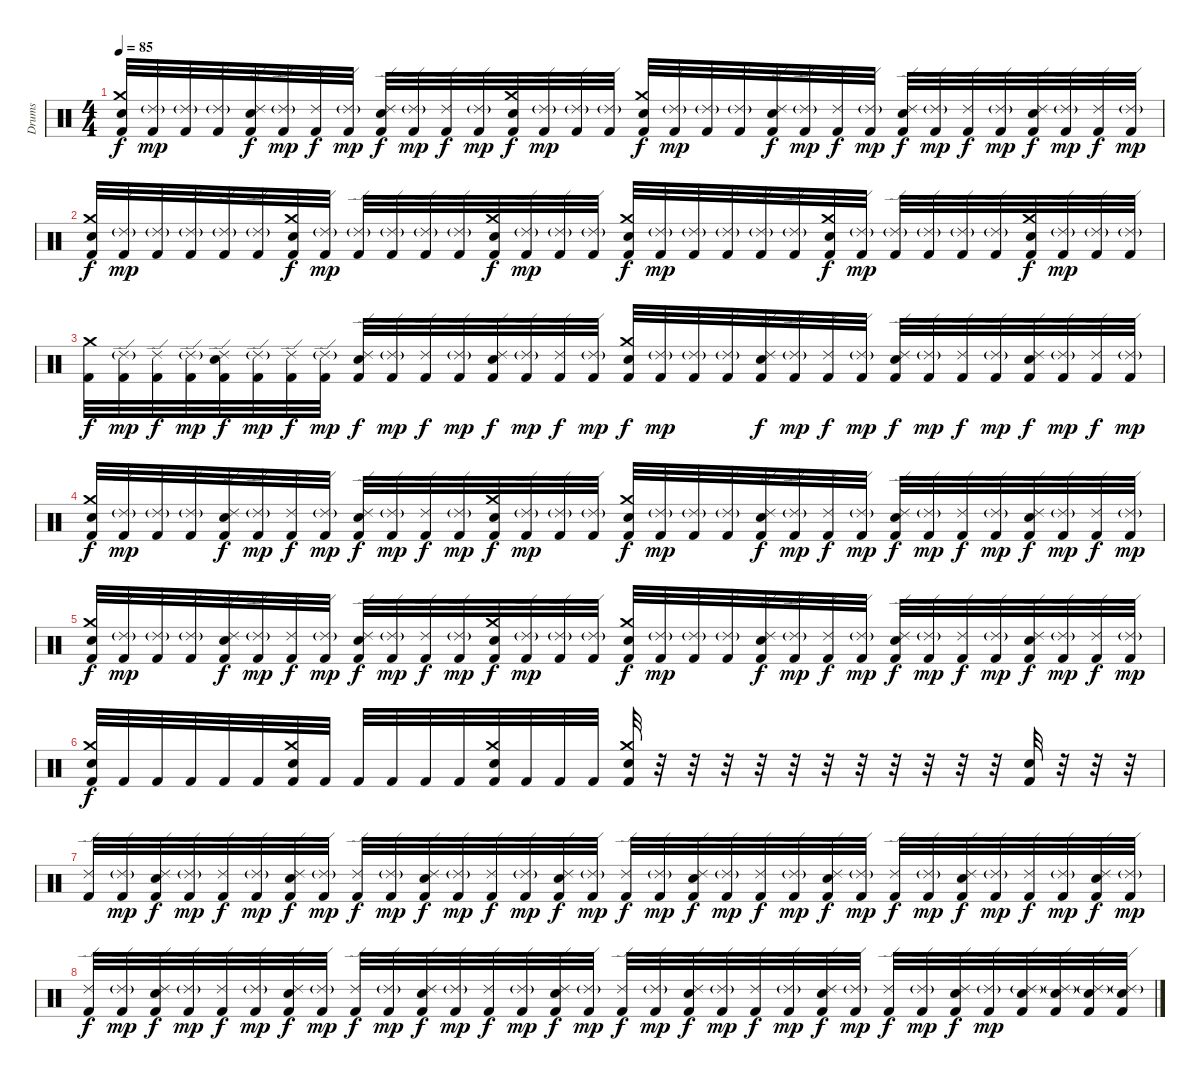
\track ("Drums" "Drums") {instrument percussion}
\staff {score}
\articulation defaults
\ts (4 4)
\tempo 85
\clef neutral
\ks c
("Snare (hit) 2" "Crash medium (hit)" "Kick (hit) 2").32{dy f} ("Ride (edge) 2"{g} "Kick (hit) 2").32{dy mp} ("Ride (edge) 2"{g} "Kick (hit) 2").32 ("Ride (edge) 2"{g} "Kick (hit) 2").32 ("Snare (hit) 2" "Ride (edge) 2" "Kick (hit) 2").32{dy f} ("Ride (edge) 2"{g} "Kick (hit) 2").32{dy mp} ("Ride (edge) 2" "Kick (hit) 2").32{dy f} ("Ride (edge) 2"{g} "Kick (hit) 2").32{dy mp} ("Snare (hit) 2" "Ride (edge) 2" "Kick (hit) 2").32{dy f} ("Ride (edge) 2"{g} "Kick (hit) 2").32{dy mp} ("Ride (edge) 2" "Kick (hit) 2").32{dy f} ("Ride (edge) 2"{g} "Kick (hit) 2").32{dy mp} ("Snare (hit) 2" "Crash medium (hit)" "Kick (hit) 2").32{dy f} ("Ride (edge) 2"{g} "Kick (hit) 2").32{dy mp} ("Ride (edge) 2"{g} "Kick (hit) 2").32 ("Ride (edge) 2"{g} "Kick (hit) 2").32 ("Snare (hit) 2" "Crash medium (hit)" "Kick (hit) 2").32{dy f} ("Ride (edge) 2"{g} "Kick (hit) 2").32{dy mp} ("Ride (edge) 2"{g} "Kick (hit) 2").32 ("Ride (edge) 2"{g} "Kick (hit) 2").32 ("Snare (hit) 2" "Ride (edge) 2" "Kick (hit) 2").32{dy f} ("Ride (edge) 2"{g} "Kick (hit) 2").32{dy mp} ("Ride (edge) 2" "Kick (hit) 2").32{dy f} ("Ride (edge) 2"{g} "Kick (hit) 2").32{dy mp} ("Snare (hit) 2" "Ride (edge) 2" "Kick (hit) 2").32{dy f} ("Ride (edge) 2"{g} "Kick (hit) 2").32{dy mp} ("Ride (edge) 2" "Kick (hit) 2").32{dy f} ("Ride (edge) 2"{g} "Kick (hit) 2").32{dy mp} ("Snare (hit) 2" "Ride (edge) 2" "Kick (hit) 2").32{dy f} ("Ride (edge) 2"{g} "Kick (hit) 2").32{dy mp} ("Ride (edge) 2" "Kick (hit) 2").32{dy f} ("Ride (edge) 2"{g} "Kick (hit) 2").32{dy mp} |
("Snare (hit) 2" "Crash medium (hit)" "Kick (hit) 2").32{dy f} ("Ride (edge) 2"{g} "Kick (hit) 2").32{dy mp} ("Ride (edge) 2"{g} "Kick (hit) 2").32 ("Ride (edge) 2"{g} "Kick (hit) 2").32 ("Ride (edge) 2"{g} "Kick (hit) 2").32 ("Ride (edge) 2"{g} "Kick (hit) 2").32 ("Snare (hit) 2" "Crash medium (hit)" "Kick (hit) 2").32{dy f} ("Ride (edge) 2"{g} "Kick (hit) 2").32{dy mp} ("Ride (edge) 2"{g} "Kick (hit) 2").32 ("Ride (edge) 2"{g} "Kick (hit) 2").32 ("Ride (edge) 2"{g} "Kick (hit) 2").32 ("Ride (edge) 2"{g} "Kick (hit) 2").32 ("Snare (hit) 2" "Crash medium (hit)" "Kick (hit) 2").32{dy f} ("Ride (edge) 2"{g} "Kick (hit) 2").32{dy mp} ("Ride (edge) 2"{g} "Kick (hit) 2").32 ("Ride (edge) 2"{g} "Kick (hit) 2").32 ("Snare (hit) 2" "Crash medium (hit)" "Kick (hit) 2").32{dy f} ("Ride (edge) 2"{g} "Kick (hit) 2").32{dy mp} ("Ride (edge) 2"{g} "Kick (hit) 2").32 ("Ride (edge) 2"{g} "Kick (hit) 2").32 ("Ride (edge) 2"{g} "Kick (hit) 2").32 ("Ride (edge) 2"{g} "Kick (hit) 2").32 ("Snare (hit) 2" "Crash medium (hit)" "Kick (hit) 2").32{dy f} ("Ride (edge) 2"{g} "Kick (hit) 2").32{dy mp} ("Ride (edge) 2"{g} "Kick (hit) 2").32 ("Ride (edge) 2"{g} "Kick (hit) 2").32 ("Ride (edge) 2"{g} "Kick (hit) 2").32 ("Ride (edge) 2"{g} "Kick (hit) 2").32 ("Snare (hit) 2" "Crash medium (hit)" "Kick (hit) 2").32{dy f} ("Ride (edge) 2"{g} "Kick (hit) 2").32{dy mp} ("Ride (edge) 2"{g} "Kick (hit) 2").32 ("Ride (edge) 2"{g} "Kick (hit) 2").32 |
("Crash medium (hit)" "Kick (hit) 2").32{dy f} ("Ride (edge) 2"{g} "Kick (hit) 2").32{dy mp} ("Ride (edge) 2" "Kick (hit) 2").32{dy f} ("Ride (edge) 2"{g} "Kick (hit) 2").32{dy mp} ("Snare (hit) 2" "Ride (edge) 2" "Kick (hit) 2").32{dy f} ("Ride (edge) 2"{g} "Kick (hit) 2").32{dy mp} ("Ride (edge) 2" "Kick (hit) 2").32{dy f} ("Ride (edge) 2"{g} "Kick (hit) 2").32{dy mp} ("Snare (hit) 2" "Ride (edge) 2" "Kick (hit) 2").32{dy f} ("Ride (edge) 2"{g} "Kick (hit) 2").32{dy mp} ("Ride (edge) 2" "Kick (hit) 2").32{dy f} ("Ride (edge) 2"{g} "Kick (hit) 2").32{dy mp} ("Snare (hit) 2" "Ride (edge) 2" "Kick (hit) 2").32{dy f} ("Ride (edge) 2"{g} "Kick (hit) 2").32{dy mp} ("Ride (edge) 2" "Kick (hit) 2").32{dy f} ("Ride (edge) 2"{g} "Kick (hit) 2").32{dy mp} ("Snare (hit) 2" "Crash medium (hit)" "Kick (hit) 2").32{dy f} ("Ride (edge) 2"{g} "Kick (hit) 2").32{dy mp} ("Ride (edge) 2"{g} "Kick (hit) 2").32 ("Ride (edge) 2"{g} "Kick (hit) 2").32 ("Snare (hit) 2" "Ride (edge) 2" "Kick (hit) 2").32{dy f} ("Ride (edge) 2"{g} "Kick (hit) 2").32{dy mp} ("Ride (edge) 2" "Kick (hit) 2").32{dy f} ("Ride (edge) 2"{g} "Kick (hit) 2").32{dy mp} ("Snare (hit) 2" "Ride (edge) 2" "Kick (hit) 2").32{dy f} ("Ride (edge) 2"{g} "Kick (hit) 2").32{dy mp} ("Ride (edge) 2" "Kick (hit) 2").32{dy f} ("Ride (edge) 2"{g} "Kick (hit) 2").32{dy mp} ("Snare (hit) 2" "Ride (edge) 2" "Kick (hit) 2").32{dy f} ("Ride (edge) 2"{g} "Kick (hit) 2").32{dy mp} ("Ride (edge) 2" "Kick (hit) 2").32{dy f} ("Ride (edge) 2"{g} "Kick (hit) 2").32{dy mp} |
("Snare (hit) 2" "Crash medium (hit)" "Kick (hit) 2").32{dy f} ("Ride (edge) 2"{g} "Kick (hit) 2").32{dy mp} ("Ride (edge) 2"{g} "Kick (hit) 2").32 ("Ride (edge) 2"{g} "Kick (hit) 2").32 ("Snare (hit) 2" "Ride (edge) 2" "Kick (hit) 2").32{dy f} ("Ride (edge) 2"{g} "Kick (hit) 2").32{dy mp} ("Ride (edge) 2" "Kick (hit) 2").32{dy f} ("Ride (edge) 2"{g} "Kick (hit) 2").32{dy mp} ("Snare (hit) 2" "Ride (edge) 2" "Kick (hit) 2").32{dy f} ("Ride (edge) 2"{g} "Kick (hit) 2").32{dy mp} ("Ride (edge) 2" "Kick (hit) 2").32{dy f} ("Ride (edge) 2"{g} "Kick (hit) 2").32{dy mp} ("Snare (hit) 2" "Crash medium (hit)" "Kick (hit) 2").32{dy f} ("Ride (edge) 2"{g} "Kick (hit) 2").32{dy mp} ("Ride (edge) 2"{g} "Kick (hit) 2").32 ("Ride (edge) 2"{g} "Kick (hit) 2").32 ("Snare (hit) 2" "Crash medium (hit)" "Kick (hit) 2").32{dy f} ("Ride (edge) 2"{g} "Kick (hit) 2").32{dy mp} ("Ride (edge) 2"{g} "Kick (hit) 2").32 ("Ride (edge) 2"{g} "Kick (hit) 2").32 ("Snare (hit) 2" "Ride (edge) 2" "Kick (hit) 2").32{dy f} ("Ride (edge) 2"{g} "Kick (hit) 2").32{dy mp} ("Ride (edge) 2" "Kick (hit) 2").32{dy f} ("Ride (edge) 2"{g} "Kick (hit) 2").32{dy mp} ("Snare (hit) 2" "Ride (edge) 2" "Kick (hit) 2").32{dy f} ("Ride (edge) 2"{g} "Kick (hit) 2").32{dy mp} ("Ride (edge) 2" "Kick (hit) 2").32{dy f} ("Ride (edge) 2"{g} "Kick (hit) 2").32{dy mp} ("Snare (hit) 2" "Ride (edge) 2" "Kick (hit) 2").32{dy f} ("Ride (edge) 2"{g} "Kick (hit) 2").32{dy mp} ("Ride (edge) 2" "Kick (hit) 2").32{dy f} ("Ride (edge) 2"{g} "Kick (hit) 2").32{dy mp} |
("Snare (hit) 2" "Crash medium (hit)" "Kick (hit) 2").32{dy f} ("Ride (edge) 2"{g} "Kick (hit) 2").32{dy mp} ("Ride (edge) 2"{g} "Kick (hit) 2").32 ("Ride (edge) 2"{g} "Kick (hit) 2").32 ("Snare (hit) 2" "Ride (edge) 2" "Kick (hit) 2").32{dy f} ("Ride (edge) 2"{g} "Kick (hit) 2").32{dy mp} ("Ride (edge) 2" "Kick (hit) 2").32{dy f} ("Ride (edge) 2"{g} "Kick (hit) 2").32{dy mp} ("Snare (hit) 2" "Ride (edge) 2" "Kick (hit) 2").32{dy f} ("Ride (edge) 2"{g} "Kick (hit) 2").32{dy mp} ("Ride (edge) 2" "Kick (hit) 2").32{dy f} ("Ride (edge) 2"{g} "Kick (hit) 2").32{dy mp} ("Snare (hit) 2" "Crash medium (hit)" "Kick (hit) 2").32{dy f} ("Ride (edge) 2"{g} "Kick (hit) 2").32{dy mp} ("Ride (edge) 2"{g} "Kick (hit) 2").32 ("Ride (edge) 2"{g} "Kick (hit) 2").32 ("Snare (hit) 2" "Crash medium (hit)" "Kick (hit) 2").32{dy f} ("Ride (edge) 2"{g} "Kick (hit) 2").32{dy mp} ("Ride (edge) 2"{g} "Kick (hit) 2").32 ("Ride (edge) 2"{g} "Kick (hit) 2").32 ("Snare (hit) 2" "Ride (edge) 2" "Kick (hit) 2").32{dy f} ("Ride (edge) 2"{g} "Kick (hit) 2").32{dy mp} ("Ride (edge) 2" "Kick (hit) 2").32{dy f} ("Ride (edge) 2"{g} "Kick (hit) 2").32{dy mp} ("Snare (hit) 2" "Ride (edge) 2" "Kick (hit) 2").32{dy f} ("Ride (edge) 2"{g} "Kick (hit) 2").32{dy mp} ("Ride (edge) 2" "Kick (hit) 2").32{dy f} ("Ride (edge) 2"{g} "Kick (hit) 2").32{dy mp} ("Snare (hit) 2" "Ride (edge) 2" "Kick (hit) 2").32{dy f} ("Ride (edge) 2"{g} "Kick (hit) 2").32{dy mp} ("Ride (edge) 2" "Kick (hit) 2").32{dy f} ("Ride (edge) 2"{g} "Kick (hit) 2").32{dy mp} |
("Snare (hit) 2" "Crash medium (hit)" "Kick (hit) 2").32{dy f} "Kick (hit) 2".32 "Kick (hit) 2".32 "Kick (hit) 2".32 "Kick (hit) 2".32 "Kick (hit) 2".32 ("Snare (hit) 2" "Crash medium (hit)" "Kick (hit) 2").32 "Kick (hit) 2".32 "Kick (hit) 2".32 "Kick (hit) 2".32 "Kick (hit) 2".32 "Kick (hit) 2".32 ("Snare (hit) 2" "Crash medium (hit)" "Kick (hit) 2").32 "Kick (hit) 2".32 "Kick (hit) 2".32 "Kick (hit) 2".32 ("Snare (hit) 2" "Crash medium (hit)" "Kick (hit) 2").32 r.32 r.32 r.32 r.32 r.32 r.32 r.32 r.32 r.32 r.32 r.32 ("Snare (hit) 2" "Kick (hit) 2").32 r.32 r.32 r.32 |
("Ride (edge) 2" "Kick (hit) 2").32 ("Ride (edge) 2"{g} "Kick (hit) 2").32{dy mp} ("Snare (hit) 2" "Ride (edge) 2" "Kick (hit) 2").32{dy f} ("Ride (edge) 2"{g} "Kick (hit) 2").32{dy mp} ("Ride (edge) 2" "Kick (hit) 2").32{dy f} ("Ride (edge) 2"{g} "Kick (hit) 2").32{dy mp} ("Snare (hit) 2" "Ride (edge) 2" "Kick (hit) 2").32{dy f} ("Ride (edge) 2"{g} "Kick (hit) 2").32{dy mp} ("Ride (edge) 2" "Kick (hit) 2").32{dy f} ("Ride (edge) 2"{g} "Kick (hit) 2").32{dy mp} ("Snare (hit) 2" "Ride (edge) 2" "Kick (hit) 2").32{dy f} ("Ride (edge) 2"{g} "Kick (hit) 2").32{dy mp} ("Ride (edge) 2" "Kick (hit) 2").32{dy f} ("Ride (edge) 2"{g} "Kick (hit) 2").32{dy mp} ("Snare (hit) 2" "Ride (edge) 2" "Kick (hit) 2").32{dy f} ("Ride (edge) 2"{g} "Kick (hit) 2").32{dy mp} ("Ride (edge) 2" "Kick (hit) 2").32{dy f} ("Ride (edge) 2"{g} "Kick (hit) 2").32{dy mp} ("Snare (hit) 2" "Ride (edge) 2" "Kick (hit) 2").32{dy f} ("Ride (edge) 2"{g} "Kick (hit) 2").32{dy mp} ("Ride (edge) 2" "Kick (hit) 2").32{dy f} ("Ride (edge) 2"{g} "Kick (hit) 2").32{dy mp} ("Snare (hit) 2" "Ride (edge) 2" "Kick (hit) 2").32{dy f} ("Ride (edge) 2"{g} "Kick (hit) 2").32{dy mp} ("Ride (edge) 2" "Kick (hit) 2").32{dy f} ("Ride (edge) 2"{g} "Kick (hit) 2").32{dy mp} ("Snare (hit) 2" "Ride (edge) 2" "Kick (hit) 2").32{dy f} ("Ride (edge) 2"{g} "Kick (hit) 2").32{dy mp} ("Ride (edge) 2" "Kick (hit) 2").32{dy f} ("Ride (edge) 2"{g} "Kick (hit) 2").32{dy mp} ("Snare (hit) 2" "Ride (edge) 2" "Kick (hit) 2").32{dy f} ("Ride (edge) 2"{g} "Kick (hit) 2").32{dy mp} |
("Ride (edge) 2" "Kick (hit) 2").32{dy f} ("Ride (edge) 2"{g} "Kick (hit) 2").32{dy mp} ("Snare (hit) 2" "Ride (edge) 2" "Kick (hit) 2").32{dy f} ("Ride (edge) 2"{g} "Kick (hit) 2").32{dy mp} ("Ride (edge) 2" "Kick (hit) 2").32{dy f} ("Ride (edge) 2"{g} "Kick (hit) 2").32{dy mp} ("Snare (hit) 2" "Ride (edge) 2" "Kick (hit) 2").32{dy f} ("Ride (edge) 2"{g} "Kick (hit) 2").32{dy mp} ("Ride (edge) 2" "Kick (hit) 2").32{dy f} ("Ride (edge) 2"{g} "Kick (hit) 2").32{dy mp} ("Snare (hit) 2" "Ride (edge) 2" "Kick (hit) 2").32{dy f} ("Ride (edge) 2"{g} "Kick (hit) 2").32{dy mp} ("Ride (edge) 2" "Kick (hit) 2").32{dy f} ("Ride (edge) 2"{g} "Kick (hit) 2").32{dy mp} ("Snare (hit) 2" "Ride (edge) 2" "Kick (hit) 2").32{dy f} ("Ride (edge) 2"{g} "Kick (hit) 2").32{dy mp} ("Ride (edge) 2" "Kick (hit) 2").32{dy f} ("Ride (edge) 2"{g} "Kick (hit) 2").32{dy mp} ("Snare (hit) 2" "Ride (edge) 2" "Kick (hit) 2").32{dy f} ("Ride (edge) 2"{g} "Kick (hit) 2").32{dy mp} ("Ride (edge) 2" "Kick (hit) 2").32{dy f} ("Ride (edge) 2"{g} "Kick (hit) 2").32{dy mp} ("Snare (hit) 2" "Ride (edge) 2" "Kick (hit) 2").32{dy f} ("Ride (edge) 2"{g} "Kick (hit) 2").32{dy mp} ("Ride (edge) 2" "Kick (hit) 2").32{dy f} ("Ride (edge) 2"{g} "Kick (hit) 2").32{dy mp} ("Snare (hit) 2" "Ride (edge) 2" "Kick (hit) 2").32{dy f} ("Ride (edge) 2"{g} "Kick (hit) 2").32{dy mp} ("Snare (hit) 2" "Ride (edge) 2"{g} "Kick (hit) 2").32 ("Snare (hit) 2" "Ride (edge) 2"{g} "Kick (hit) 2").32 ("Snare (hit) 2" "Ride (edge) 2"{g} "Kick (hit) 2").32 ("Snare (hit) 2" "Ride (edge) 2"{g} "Kick (hit) 2").32
